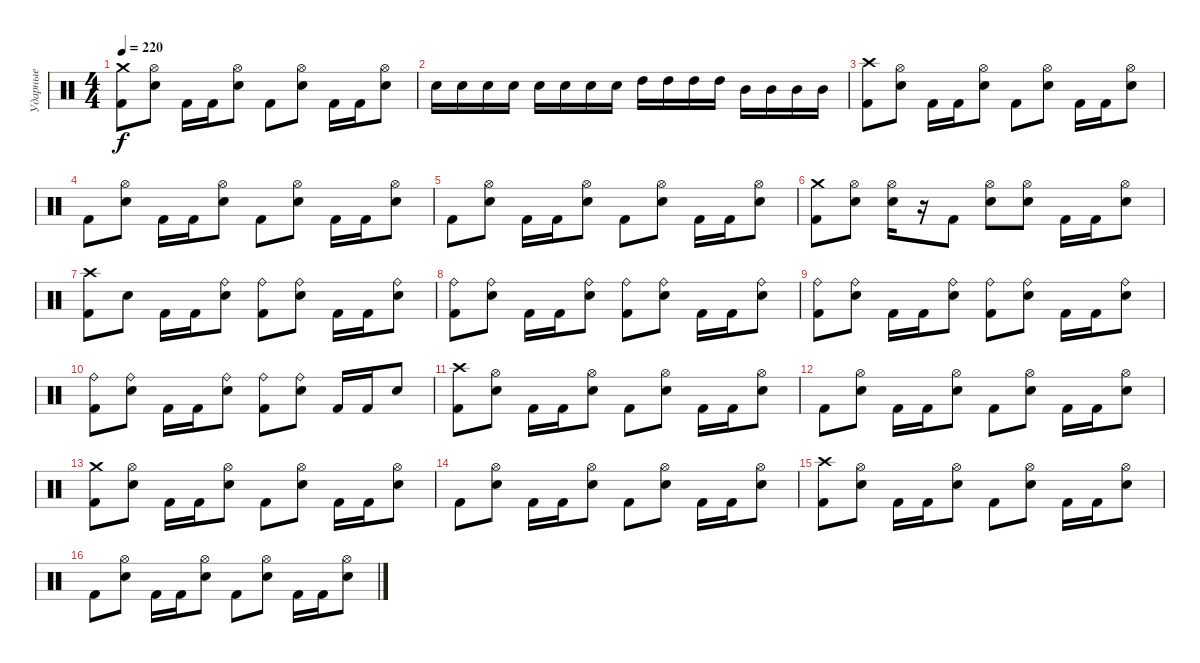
\track ("Ударные" "Ударные") {instrument percussion}
\staff {score}
\articulation defaults
\ts (4 4)
\tempo 220
\clef neutral
\ks c
("Crash medium (hit)" "Kick (hit) 2").8{dy f} ("Hi-Hat (open)" "Electric Snare (hit)").8 "Kick (hit) 2".16 "Kick (hit) 2".16 ("Hi-Hat (open)" "Electric Snare (hit)").8 "Kick (hit) 2".8 ("Hi-Hat (open)" "Electric Snare (hit)").8 "Kick (hit) 2".16 "Kick (hit) 2".16 ("Hi-Hat (open)" "Electric Snare (hit)").8 |
"Electric Snare (hit)".16 "Electric Snare (hit)".16 "Electric Snare (hit)".16 "Electric Snare (hit)".16 "Electric Snare (hit)".16 "Electric Snare (hit)".16 "Electric Snare (hit)".16 "Electric Snare (hit)".16 "High Tom (hit)".16 "High Tom (hit)".16 "High Tom (hit)".16 "High Tom (hit)".16 "Mid Tom (hit)".16 "Mid Tom (hit)".16 "Mid Tom (hit)".16 "Mid Tom (hit)".16 |
("Crash high (hit)" "Kick (hit) 2").8 ("Hi-Hat (open)" "Electric Snare (hit)").8 "Kick (hit) 2".16 "Kick (hit) 2".16 ("Hi-Hat (open)" "Electric Snare (hit)").8 "Kick (hit) 2".8 ("Hi-Hat (open)" "Electric Snare (hit)").8 "Kick (hit) 2".16 "Kick (hit) 2".16 ("Hi-Hat (open)" "Electric Snare (hit)").8 |
"Kick (hit) 2".8 ("Hi-Hat (open)" "Electric Snare (hit)").8 "Kick (hit) 2".16 "Kick (hit) 2".16 ("Hi-Hat (open)" "Electric Snare (hit)").8 "Kick (hit) 2".8 ("Hi-Hat (open)" "Electric Snare (hit)").8 "Kick (hit) 2".16 "Kick (hit) 2".16 ("Hi-Hat (open)" "Electric Snare (hit)").8 |
"Kick (hit) 2".8 ("Hi-Hat (open)" "Electric Snare (hit)").8 "Kick (hit) 2".16 "Kick (hit) 2".16 ("Hi-Hat (open)" "Electric Snare (hit)").8 "Kick (hit) 2".8 ("Hi-Hat (open)" "Electric Snare (hit)").8 "Kick (hit) 2".16 "Kick (hit) 2".16 ("Hi-Hat (open)" "Electric Snare (hit)").8 |
("Crash medium (hit)" "Kick (hit) 2").8 ("Hi-Hat (open)" "Electric Snare (hit)").8 ("Hi-Hat (open)" "Electric Snare (hit)").16 r.16 "Kick (hit) 2".8 ("Hi-Hat (open)" "Electric Snare (hit)").8 ("Hi-Hat (open)" "Electric Snare (hit)").8 "Kick (hit) 2".16 "Kick (hit) 2".16 ("Hi-Hat (open)" "Electric Snare (hit)").8 |
("Crash high (hit)" "Kick (hit) 2").8 "Electric Snare (hit)".8 "Kick (hit) 2".16 "Kick (hit) 2".16 ("Ride (bell)" "Electric Snare (hit)").8 ("Ride (bell)" "Kick (hit) 2").8 ("Ride (bell)" "Electric Snare (hit)").8 "Kick (hit) 2".16 "Kick (hit) 2".16 ("Ride (bell)" "Electric Snare (hit)").8 |
("Ride (bell)" "Kick (hit) 2").8 ("Ride (bell)" "Electric Snare (hit)").8 "Kick (hit) 2".16 "Kick (hit) 2".16 ("Ride (bell)" "Electric Snare (hit)").8 ("Ride (bell)" "Kick (hit) 2").8 ("Ride (bell)" "Electric Snare (hit)").8 "Kick (hit) 2".16 "Kick (hit) 2".16 ("Ride (bell)" "Electric Snare (hit)").8 |
("Ride (bell)" "Kick (hit) 2").8 ("Ride (bell)" "Electric Snare (hit)").8 "Kick (hit) 2".16 "Kick (hit) 2".16 ("Ride (bell)" "Electric Snare (hit)").8 ("Ride (bell)" "Kick (hit) 2").8 ("Ride (bell)" "Electric Snare (hit)").8 "Kick (hit) 2".16 "Kick (hit) 2".16 ("Ride (bell)" "Electric Snare (hit)").8 |
("Ride (bell)" "Kick (hit) 2").8 ("Ride (bell)" "Electric Snare (hit)").8 "Kick (hit) 2".16 "Kick (hit) 2".16 ("Ride (bell)" "Electric Snare (hit)").8 ("Ride (bell)" "Kick (hit) 2").8 ("Ride (bell)" "Electric Snare (hit)").8 "Kick (hit) 2".16 "Kick (hit) 2".16 "Electric Snare (hit)".8 |
("Crash high (hit)" "Kick (hit) 2").8 ("Hi-Hat (open)" "Electric Snare (hit)").8 "Kick (hit) 2".16 "Kick (hit) 2".16 ("Hi-Hat (open)" "Electric Snare (hit)").8 "Kick (hit) 2".8 ("Hi-Hat (open)" "Electric Snare (hit)").8 "Kick (hit) 2".16 "Kick (hit) 2".16 ("Hi-Hat (open)" "Electric Snare (hit)").8 |
"Kick (hit) 2".8 ("Hi-Hat (open)" "Electric Snare (hit)").8 "Kick (hit) 2".16 "Kick (hit) 2".16 ("Hi-Hat (open)" "Electric Snare (hit)").8 "Kick (hit) 2".8 ("Hi-Hat (open)" "Electric Snare (hit)").8 "Kick (hit) 2".16 "Kick (hit) 2".16 ("Hi-Hat (open)" "Electric Snare (hit)").8 |
("Crash medium (hit)" "Kick (hit) 2").8 ("Hi-Hat (open)" "Electric Snare (hit)").8 "Kick (hit) 2".16 "Kick (hit) 2".16 ("Hi-Hat (open)" "Electric Snare (hit)").8 "Kick (hit) 2".8 ("Hi-Hat (open)" "Electric Snare (hit)").8 "Kick (hit) 2".16 "Kick (hit) 2".16 ("Hi-Hat (open)" "Electric Snare (hit)").8 |
"Kick (hit) 2".8 ("Hi-Hat (open)" "Electric Snare (hit)").8 "Kick (hit) 2".16 "Kick (hit) 2".16 ("Hi-Hat (open)" "Electric Snare (hit)").8 "Kick (hit) 2".8 ("Hi-Hat (open)" "Electric Snare (hit)").8 "Kick (hit) 2".16 "Kick (hit) 2".16 ("Hi-Hat (open)" "Electric Snare (hit)").8 |
("Crash high (hit)" "Kick (hit) 2").8 ("Hi-Hat (open)" "Electric Snare (hit)").8 "Kick (hit) 2".16 "Kick (hit) 2".16 ("Hi-Hat (open)" "Electric Snare (hit)").8 "Kick (hit) 2".8 ("Hi-Hat (open)" "Electric Snare (hit)").8 "Kick (hit) 2".16 "Kick (hit) 2".16 ("Hi-Hat (open)" "Electric Snare (hit)").8 |
"Kick (hit) 2".8 ("Hi-Hat (open)" "Electric Snare (hit)").8 "Kick (hit) 2".16 "Kick (hit) 2".16 ("Hi-Hat (open)" "Electric Snare (hit)").8 "Kick (hit) 2".8 ("Hi-Hat (open)" "Electric Snare (hit)").8 "Kick (hit) 2".16 "Kick (hit) 2".16 ("Hi-Hat (open)" "Electric Snare (hit)").8
